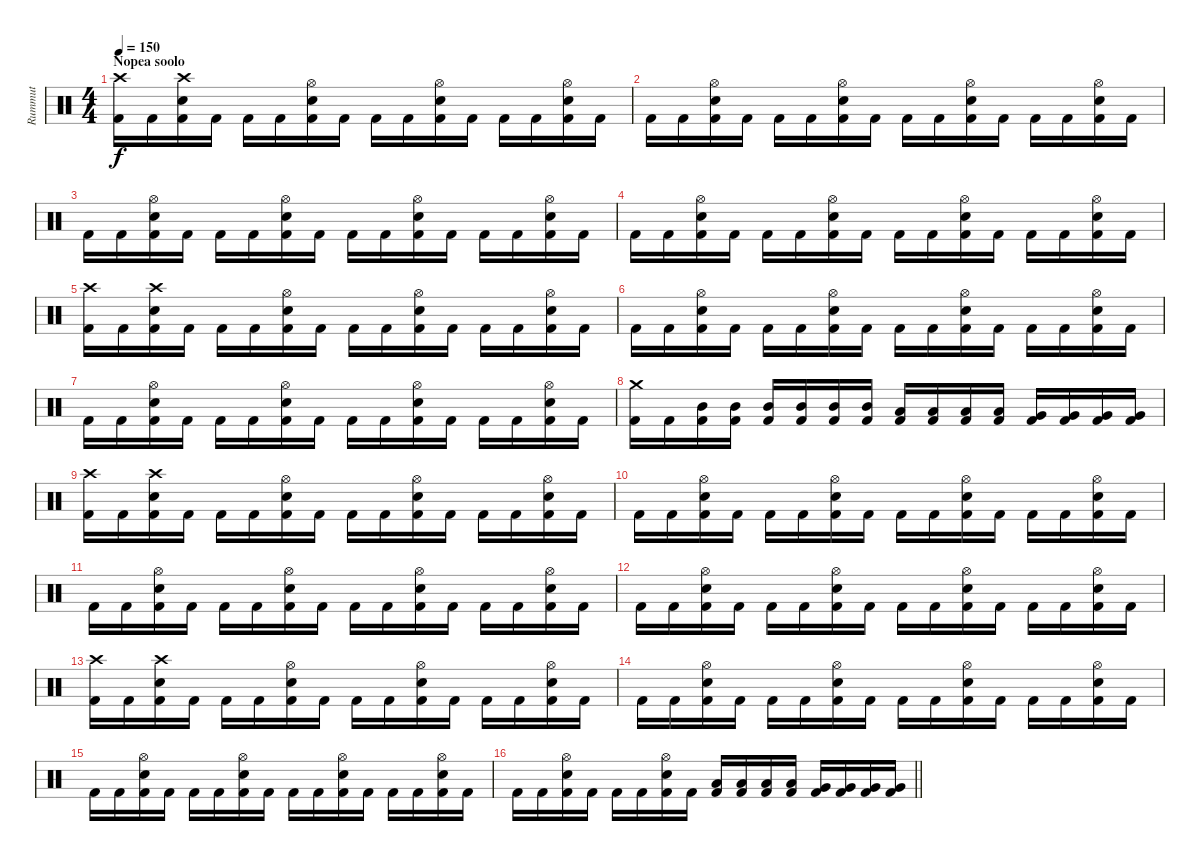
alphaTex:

\track ("Rummut" "Rummut") {instrument percussion}
\staff {score}
\articulation defaults
\ts (4 4)
\section ("" "Nopea soolo")
\tempo 150
\clef neutral
\ks c
("Crash high (hit)" "Kick (hit) 2").16{dy f} "Kick (hit) 2".16 ("Crash high (hit)" "Snare (hit) 2" "Kick (hit) 2").16 "Kick (hit) 2".16 "Kick (hit) 2".16 "Kick (hit) 2".16 ("Hi-Hat (open)" "Snare (hit) 2" "Kick (hit) 2").16 "Kick (hit) 2".16 "Kick (hit) 2".16 "Kick (hit) 2".16 ("Hi-Hat (open)" "Snare (hit) 2" "Kick (hit) 2").16 "Kick (hit) 2".16 "Kick (hit) 2".16 "Kick (hit) 2".16 ("Hi-Hat (open)" "Snare (hit) 2" "Kick (hit) 2").16 "Kick (hit) 2".16 |
"Kick (hit) 2".16 "Kick (hit) 2".16 ("Hi-Hat (open)" "Snare (hit) 2" "Kick (hit) 2").16 "Kick (hit) 2".16 "Kick (hit) 2".16 "Kick (hit) 2".16 ("Hi-Hat (open)" "Snare (hit) 2" "Kick (hit) 2").16 "Kick (hit) 2".16 "Kick (hit) 2".16 "Kick (hit) 2".16 ("Hi-Hat (open)" "Snare (hit) 2" "Kick (hit) 2").16 "Kick (hit) 2".16 "Kick (hit) 2".16 "Kick (hit) 2".16 ("Hi-Hat (open)" "Snare (hit) 2" "Kick (hit) 2").16 "Kick (hit) 2".16 |
"Kick (hit) 2".16 "Kick (hit) 2".16 ("Hi-Hat (open)" "Snare (hit) 2" "Kick (hit) 2").16 "Kick (hit) 2".16 "Kick (hit) 2".16 "Kick (hit) 2".16 ("Hi-Hat (open)" "Snare (hit) 2" "Kick (hit) 2").16 "Kick (hit) 2".16 "Kick (hit) 2".16 "Kick (hit) 2".16 ("Hi-Hat (open)" "Snare (hit) 2" "Kick (hit) 2").16 "Kick (hit) 2".16 "Kick (hit) 2".16 "Kick (hit) 2".16 ("Hi-Hat (open)" "Snare (hit) 2" "Kick (hit) 2").16 "Kick (hit) 2".16 |
"Kick (hit) 2".16 "Kick (hit) 2".16 ("Hi-Hat (open)" "Snare (hit) 2" "Kick (hit) 2").16 "Kick (hit) 2".16 "Kick (hit) 2".16 "Kick (hit) 2".16 ("Hi-Hat (open)" "Snare (hit) 2" "Kick (hit) 2").16 "Kick (hit) 2".16 "Kick (hit) 2".16 "Kick (hit) 2".16 ("Hi-Hat (open)" "Snare (hit) 2" "Kick (hit) 2").16 "Kick (hit) 2".16 "Kick (hit) 2".16 "Kick (hit) 2".16 ("Hi-Hat (open)" "Snare (hit) 2" "Kick (hit) 2").16 "Kick (hit) 2".16 |
("Crash high (hit)" "Kick (hit) 2").16 "Kick (hit) 2".16 ("Crash high (hit)" "Snare (hit) 2" "Kick (hit) 2").16 "Kick (hit) 2".16 "Kick (hit) 2".16 "Kick (hit) 2".16 ("Hi-Hat (open)" "Snare (hit) 2" "Kick (hit) 2").16 "Kick (hit) 2".16 "Kick (hit) 2".16 "Kick (hit) 2".16 ("Hi-Hat (open)" "Snare (hit) 2" "Kick (hit) 2").16 "Kick (hit) 2".16 "Kick (hit) 2".16 "Kick (hit) 2".16 ("Hi-Hat (open)" "Snare (hit) 2" "Kick (hit) 2").16 "Kick (hit) 2".16 |
"Kick (hit) 2".16 "Kick (hit) 2".16 ("Hi-Hat (open)" "Snare (hit) 2" "Kick (hit) 2").16 "Kick (hit) 2".16 "Kick (hit) 2".16 "Kick (hit) 2".16 ("Hi-Hat (open)" "Snare (hit) 2" "Kick (hit) 2").16 "Kick (hit) 2".16 "Kick (hit) 2".16 "Kick (hit) 2".16 ("Hi-Hat (open)" "Snare (hit) 2" "Kick (hit) 2").16 "Kick (hit) 2".16 "Kick (hit) 2".16 "Kick (hit) 2".16 ("Hi-Hat (open)" "Snare (hit) 2" "Kick (hit) 2").16 "Kick (hit) 2".16 |
"Kick (hit) 2".16 "Kick (hit) 2".16 ("Hi-Hat (open)" "Snare (hit) 2" "Kick (hit) 2").16 "Kick (hit) 2".16 "Kick (hit) 2".16 "Kick (hit) 2".16 ("Hi-Hat (open)" "Snare (hit) 2" "Kick (hit) 2").16 "Kick (hit) 2".16 "Kick (hit) 2".16 "Kick (hit) 2".16 ("Hi-Hat (open)" "Snare (hit) 2" "Kick (hit) 2").16 "Kick (hit) 2".16 "Kick (hit) 2".16 "Kick (hit) 2".16 ("Hi-Hat (open)" "Snare (hit) 2" "Kick (hit) 2").16 "Kick (hit) 2".16 |
("Crash medium (hit)" "Kick (hit) 2").16 "Kick (hit) 2".16 ("Mid Tom (hit)" "Kick (hit) 2").16 ("Mid Tom (hit)" "Kick (hit) 2").16 ("Mid Tom (hit)" "Kick (hit) 2").16 ("Mid Tom (hit)" "Kick (hit) 2").16 ("Mid Tom (hit)" "Kick (hit) 2").16 ("Mid Tom (hit)" "Kick (hit) 2").16 ("Low Tom (hit)" "Kick (hit) 2").16 ("Low Tom (hit)" "Kick (hit) 2").16 ("Low Tom (hit)" "Kick (hit) 2").16 ("Low Tom (hit)" "Kick (hit) 2").16 ("Very Low Tom (hit)" "Kick (hit) 2").16 ("Very Low Tom (hit)" "Kick (hit) 2").16 ("Very Low Tom (hit)" "Kick (hit) 2").16 ("Very Low Tom (hit)" "Kick (hit) 2").16 |
("Crash high (hit)" "Kick (hit) 2").16 "Kick (hit) 2".16 ("Crash high (hit)" "Snare (hit) 2" "Kick (hit) 2").16 "Kick (hit) 2".16 "Kick (hit) 2".16 "Kick (hit) 2".16 ("Hi-Hat (open)" "Snare (hit) 2" "Kick (hit) 2").16 "Kick (hit) 2".16 "Kick (hit) 2".16 "Kick (hit) 2".16 ("Hi-Hat (open)" "Snare (hit) 2" "Kick (hit) 2").16 "Kick (hit) 2".16 "Kick (hit) 2".16 "Kick (hit) 2".16 ("Hi-Hat (open)" "Snare (hit) 2" "Kick (hit) 2").16 "Kick (hit) 2".16 |
"Kick (hit) 2".16 "Kick (hit) 2".16 ("Hi-Hat (open)" "Snare (hit) 2" "Kick (hit) 2").16 "Kick (hit) 2".16 "Kick (hit) 2".16 "Kick (hit) 2".16 ("Hi-Hat (open)" "Snare (hit) 2" "Kick (hit) 2").16 "Kick (hit) 2".16 "Kick (hit) 2".16 "Kick (hit) 2".16 ("Hi-Hat (open)" "Snare (hit) 2" "Kick (hit) 2").16 "Kick (hit) 2".16 "Kick (hit) 2".16 "Kick (hit) 2".16 ("Hi-Hat (open)" "Snare (hit) 2" "Kick (hit) 2").16 "Kick (hit) 2".16 |
"Kick (hit) 2".16 "Kick (hit) 2".16 ("Hi-Hat (open)" "Snare (hit) 2" "Kick (hit) 2").16 "Kick (hit) 2".16 "Kick (hit) 2".16 "Kick (hit) 2".16 ("Hi-Hat (open)" "Snare (hit) 2" "Kick (hit) 2").16 "Kick (hit) 2".16 "Kick (hit) 2".16 "Kick (hit) 2".16 ("Hi-Hat (open)" "Snare (hit) 2" "Kick (hit) 2").16 "Kick (hit) 2".16 "Kick (hit) 2".16 "Kick (hit) 2".16 ("Hi-Hat (open)" "Snare (hit) 2" "Kick (hit) 2").16 "Kick (hit) 2".16 |
"Kick (hit) 2".16 "Kick (hit) 2".16 ("Hi-Hat (open)" "Snare (hit) 2" "Kick (hit) 2").16 "Kick (hit) 2".16 "Kick (hit) 2".16 "Kick (hit) 2".16 ("Hi-Hat (open)" "Snare (hit) 2" "Kick (hit) 2").16 "Kick (hit) 2".16 "Kick (hit) 2".16 "Kick (hit) 2".16 ("Hi-Hat (open)" "Snare (hit) 2" "Kick (hit) 2").16 "Kick (hit) 2".16 "Kick (hit) 2".16 "Kick (hit) 2".16 ("Hi-Hat (open)" "Snare (hit) 2" "Kick (hit) 2").16 "Kick (hit) 2".16 |
("Crash high (hit)" "Kick (hit) 2").16 "Kick (hit) 2".16 ("Crash high (hit)" "Snare (hit) 2" "Kick (hit) 2").16 "Kick (hit) 2".16 "Kick (hit) 2".16 "Kick (hit) 2".16 ("Hi-Hat (open)" "Snare (hit) 2" "Kick (hit) 2").16 "Kick (hit) 2".16 "Kick (hit) 2".16 "Kick (hit) 2".16 ("Hi-Hat (open)" "Snare (hit) 2" "Kick (hit) 2").16 "Kick (hit) 2".16 "Kick (hit) 2".16 "Kick (hit) 2".16 ("Hi-Hat (open)" "Snare (hit) 2" "Kick (hit) 2").16 "Kick (hit) 2".16 |
"Kick (hit) 2".16 "Kick (hit) 2".16 ("Hi-Hat (open)" "Snare (hit) 2" "Kick (hit) 2").16 "Kick (hit) 2".16 "Kick (hit) 2".16 "Kick (hit) 2".16 ("Hi-Hat (open)" "Snare (hit) 2" "Kick (hit) 2").16 "Kick (hit) 2".16 "Kick (hit) 2".16 "Kick (hit) 2".16 ("Hi-Hat (open)" "Snare (hit) 2" "Kick (hit) 2").16 "Kick (hit) 2".16 "Kick (hit) 2".16 "Kick (hit) 2".16 ("Hi-Hat (open)" "Snare (hit) 2" "Kick (hit) 2").16 "Kick (hit) 2".16 |
"Kick (hit) 2".16 "Kick (hit) 2".16 ("Hi-Hat (open)" "Snare (hit) 2" "Kick (hit) 2").16 "Kick (hit) 2".16 "Kick (hit) 2".16 "Kick (hit) 2".16 ("Hi-Hat (open)" "Snare (hit) 2" "Kick (hit) 2").16 "Kick (hit) 2".16 "Kick (hit) 2".16 "Kick (hit) 2".16 ("Hi-Hat (open)" "Snare (hit) 2" "Kick (hit) 2").16 "Kick (hit) 2".16 "Kick (hit) 2".16 "Kick (hit) 2".16 ("Hi-Hat (open)" "Snare (hit) 2" "Kick (hit) 2").16 "Kick (hit) 2".16 |
\barLineRight lightlight "Kick (hit) 2".16 "Kick (hit) 2".16
("Hi-Hat (open)" "Snare (hit) 2" "Kick (hit) 2").16 "Kick (hit) 2".16 "Kick (hit) 2".16 "Kick (hit) 2".16 ("Hi-Hat (open)" "Snare (hit) 2" "Kick (hit) 2").16 "Kick (hit) 2".16 ("Low Tom (hit)" "Kick (hit) 2").16 ("Low Tom (hit)" "Kick (hit) 2").16 ("Low Tom (hit)" "Kick (hit) 2").16 ("Low Tom (hit)" "Kick (hit) 2").16 ("Very Low Tom (hit)" "Kick (hit) 2").16 ("Very Low Tom (hit)" "Kick (hit) 2").16 ("Very Low Tom (hit)" "Kick (hit) 2").16 ("Very Low Tom (hit)" "Kick (hit) 2").16
